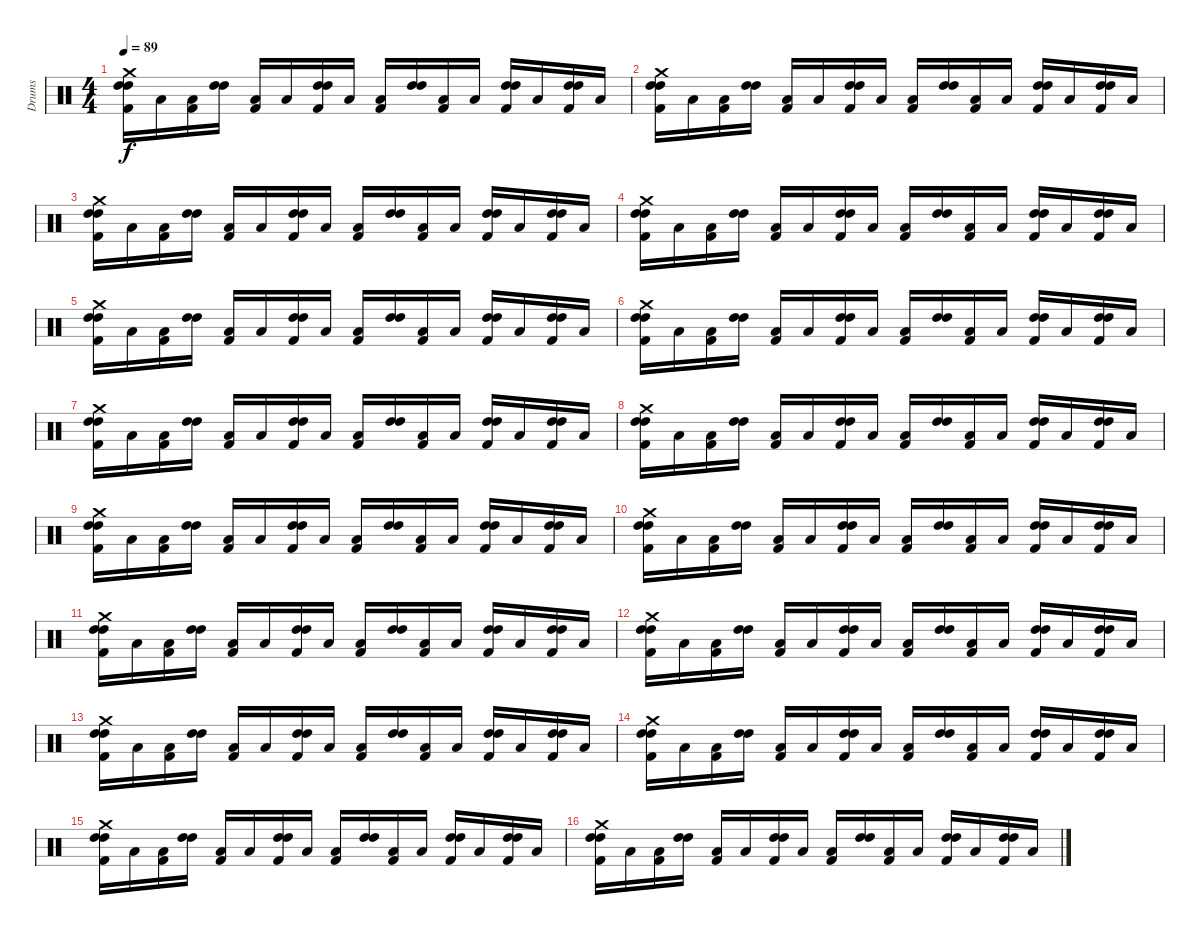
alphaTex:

\track ("Drums" "Drums") {instrument percussion}
\staff {score}
\articulation defaults
\ts (4 4)
\tempo 89
\clef neutral
\ks c
("High Tom (hit)" "Kick (hit) 2" "Crash medium (hit)" "High Tom (hit)").16{dy f} "Low Tom (hit)".16 ("Low Tom (hit)" "Kick (hit) 2").16 ("High Tom (hit)" "High Tom (hit)").16 ("Low Tom (hit)" "Kick (hit) 2").16 "Low Tom (hit)".16 ("High Tom (hit)" "Kick (hit) 2" "High Tom (hit)").16 "Low Tom (hit)".16 ("Low Tom (hit)" "Kick (hit) 2").16 ("High Tom (hit)" "High Tom (hit)").16 ("Low Tom (hit)" "Kick (hit) 2").16 "Low Tom (hit)".16 ("High Tom (hit)" "Kick (hit) 2" "High Tom (hit)").16 "Low Tom (hit)".16 ("High Tom (hit)" "Kick (hit) 2" "High Tom (hit)").16 "Low Tom (hit)".16 |
("High Tom (hit)" "Kick (hit) 2" "Crash medium (hit)" "High Tom (hit)").16 "Low Tom (hit)".16 ("Low Tom (hit)" "Kick (hit) 2").16 ("High Tom (hit)" "High Tom (hit)").16 ("Low Tom (hit)" "Kick (hit) 2").16 "Low Tom (hit)".16 ("High Tom (hit)" "Kick (hit) 2" "High Tom (hit)").16 "Low Tom (hit)".16 ("Low Tom (hit)" "Kick (hit) 2").16 ("High Tom (hit)" "High Tom (hit)").16 ("Low Tom (hit)" "Kick (hit) 2").16 "Low Tom (hit)".16 ("High Tom (hit)" "Kick (hit) 2" "High Tom (hit)").16 "Low Tom (hit)".16 ("High Tom (hit)" "Kick (hit) 2" "High Tom (hit)").16 "Low Tom (hit)".16 |
("High Tom (hit)" "Kick (hit) 2" "Crash medium (hit)" "High Tom (hit)").16 "Low Tom (hit)".16 ("Low Tom (hit)" "Kick (hit) 2").16 ("High Tom (hit)" "High Tom (hit)").16 ("Low Tom (hit)" "Kick (hit) 2").16 "Low Tom (hit)".16 ("High Tom (hit)" "Kick (hit) 2" "High Tom (hit)").16 "Low Tom (hit)".16 ("Low Tom (hit)" "Kick (hit) 2").16 ("High Tom (hit)" "High Tom (hit)").16 ("Low Tom (hit)" "Kick (hit) 2").16 "Low Tom (hit)".16 ("High Tom (hit)" "Kick (hit) 2" "High Tom (hit)").16 "Low Tom (hit)".16 ("High Tom (hit)" "Kick (hit) 2" "High Tom (hit)").16 "Low Tom (hit)".16 |
("High Tom (hit)" "Kick (hit) 2" "Crash medium (hit)" "High Tom (hit)").16 "Low Tom (hit)".16 ("Low Tom (hit)" "Kick (hit) 2").16 ("High Tom (hit)" "High Tom (hit)").16 ("Low Tom (hit)" "Kick (hit) 2").16 "Low Tom (hit)".16 ("High Tom (hit)" "Kick (hit) 2" "High Tom (hit)").16 "Low Tom (hit)".16 ("Low Tom (hit)" "Kick (hit) 2").16 ("High Tom (hit)" "High Tom (hit)").16 ("Low Tom (hit)" "Kick (hit) 2").16 "Low Tom (hit)".16 ("High Tom (hit)" "Kick (hit) 2" "High Tom (hit)").16 "Low Tom (hit)".16 ("High Tom (hit)" "Kick (hit) 2" "High Tom (hit)").16 "Low Tom (hit)".16 |
("High Tom (hit)" "Kick (hit) 2" "Crash medium (hit)" "High Tom (hit)").16 "Low Tom (hit)".16 ("Low Tom (hit)" "Kick (hit) 2").16 ("High Tom (hit)" "High Tom (hit)").16 ("Low Tom (hit)" "Kick (hit) 2").16 "Low Tom (hit)".16 ("High Tom (hit)" "Kick (hit) 2" "High Tom (hit)").16 "Low Tom (hit)".16 ("Low Tom (hit)" "Kick (hit) 2").16 ("High Tom (hit)" "High Tom (hit)").16 ("Low Tom (hit)" "Kick (hit) 2").16 "Low Tom (hit)".16 ("High Tom (hit)" "Kick (hit) 2" "High Tom (hit)").16 "Low Tom (hit)".16 ("High Tom (hit)" "Kick (hit) 2" "High Tom (hit)").16 "Low Tom (hit)".16 |
("High Tom (hit)" "Kick (hit) 2" "Crash medium (hit)" "High Tom (hit)").16 "Low Tom (hit)".16 ("Low Tom (hit)" "Kick (hit) 2").16 ("High Tom (hit)" "High Tom (hit)").16 ("Low Tom (hit)" "Kick (hit) 2").16 "Low Tom (hit)".16 ("High Tom (hit)" "Kick (hit) 2" "High Tom (hit)").16 "Low Tom (hit)".16 ("Low Tom (hit)" "Kick (hit) 2").16 ("High Tom (hit)" "High Tom (hit)").16 ("Low Tom (hit)" "Kick (hit) 2").16 "Low Tom (hit)".16 ("High Tom (hit)" "Kick (hit) 2" "High Tom (hit)").16 "Low Tom (hit)".16 ("High Tom (hit)" "Kick (hit) 2" "High Tom (hit)").16 "Low Tom (hit)".16 |
("High Tom (hit)" "Kick (hit) 2" "Crash medium (hit)" "High Tom (hit)").16 "Low Tom (hit)".16 ("Low Tom (hit)" "Kick (hit) 2").16 ("High Tom (hit)" "High Tom (hit)").16 ("Low Tom (hit)" "Kick (hit) 2").16 "Low Tom (hit)".16 ("High Tom (hit)" "Kick (hit) 2" "High Tom (hit)").16 "Low Tom (hit)".16 ("Low Tom (hit)" "Kick (hit) 2").16 ("High Tom (hit)" "High Tom (hit)").16 ("Low Tom (hit)" "Kick (hit) 2").16 "Low Tom (hit)".16 ("High Tom (hit)" "Kick (hit) 2" "High Tom (hit)").16 "Low Tom (hit)".16 ("High Tom (hit)" "Kick (hit) 2" "High Tom (hit)").16 "Low Tom (hit)".16 |
("High Tom (hit)" "Kick (hit) 2" "Crash medium (hit)" "High Tom (hit)").16 "Low Tom (hit)".16 ("Low Tom (hit)" "Kick (hit) 2").16 ("High Tom (hit)" "High Tom (hit)").16 ("Low Tom (hit)" "Kick (hit) 2").16 "Low Tom (hit)".16 ("High Tom (hit)" "Kick (hit) 2" "High Tom (hit)").16 "Low Tom (hit)".16 ("Low Tom (hit)" "Kick (hit) 2").16 ("High Tom (hit)" "High Tom (hit)").16 ("Low Tom (hit)" "Kick (hit) 2").16 "Low Tom (hit)".16 ("High Tom (hit)" "Kick (hit) 2" "High Tom (hit)").16 "Low Tom (hit)".16 ("High Tom (hit)" "Kick (hit) 2" "High Tom (hit)").16 "Low Tom (hit)".16 |
("High Tom (hit)" "Kick (hit) 2" "Crash medium (hit)" "High Tom (hit)").16 "Low Tom (hit)".16 ("Low Tom (hit)" "Kick (hit) 2").16 ("High Tom (hit)" "High Tom (hit)").16 ("Low Tom (hit)" "Kick (hit) 2").16 "Low Tom (hit)".16 ("High Tom (hit)" "Kick (hit) 2" "High Tom (hit)").16 "Low Tom (hit)".16 ("Low Tom (hit)" "Kick (hit) 2").16 ("High Tom (hit)" "High Tom (hit)").16 ("Low Tom (hit)" "Kick (hit) 2").16 "Low Tom (hit)".16 ("High Tom (hit)" "Kick (hit) 2" "High Tom (hit)").16 "Low Tom (hit)".16 ("High Tom (hit)" "Kick (hit) 2" "High Tom (hit)").16 "Low Tom (hit)".16 |
("High Tom (hit)" "Kick (hit) 2" "Crash medium (hit)" "High Tom (hit)").16 "Low Tom (hit)".16 ("Low Tom (hit)" "Kick (hit) 2").16 ("High Tom (hit)" "High Tom (hit)").16 ("Low Tom (hit)" "Kick (hit) 2").16 "Low Tom (hit)".16 ("High Tom (hit)" "Kick (hit) 2" "High Tom (hit)").16 "Low Tom (hit)".16 ("Low Tom (hit)" "Kick (hit) 2").16 ("High Tom (hit)" "High Tom (hit)").16 ("Low Tom (hit)" "Kick (hit) 2").16 "Low Tom (hit)".16 ("High Tom (hit)" "Kick (hit) 2" "High Tom (hit)").16 "Low Tom (hit)".16 ("High Tom (hit)" "Kick (hit) 2" "High Tom (hit)").16 "Low Tom (hit)".16 |
("High Tom (hit)" "Kick (hit) 2" "Crash medium (hit)" "High Tom (hit)").16 "Low Tom (hit)".16 ("Low Tom (hit)" "Kick (hit) 2").16 ("High Tom (hit)" "High Tom (hit)").16 ("Low Tom (hit)" "Kick (hit) 2").16 "Low Tom (hit)".16 ("High Tom (hit)" "Kick (hit) 2" "High Tom (hit)").16 "Low Tom (hit)".16 ("Low Tom (hit)" "Kick (hit) 2").16 ("High Tom (hit)" "High Tom (hit)").16 ("Low Tom (hit)" "Kick (hit) 2").16 "Low Tom (hit)".16 ("High Tom (hit)" "Kick (hit) 2" "High Tom (hit)").16 "Low Tom (hit)".16 ("High Tom (hit)" "Kick (hit) 2" "High Tom (hit)").16 "Low Tom (hit)".16 |
("High Tom (hit)" "Kick (hit) 2" "Crash medium (hit)" "High Tom (hit)").16 "Low Tom (hit)".16 ("Low Tom (hit)" "Kick (hit) 2").16 ("High Tom (hit)" "High Tom (hit)").16 ("Low Tom (hit)" "Kick (hit) 2").16 "Low Tom (hit)".16 ("High Tom (hit)" "Kick (hit) 2" "High Tom (hit)").16 "Low Tom (hit)".16 ("Low Tom (hit)" "Kick (hit) 2").16 ("High Tom (hit)" "High Tom (hit)").16 ("Low Tom (hit)" "Kick (hit) 2").16 "Low Tom (hit)".16 ("High Tom (hit)" "Kick (hit) 2" "High Tom (hit)").16 "Low Tom (hit)".16 ("High Tom (hit)" "Kick (hit) 2" "High Tom (hit)").16 "Low Tom (hit)".16 |
("High Tom (hit)" "Kick (hit) 2" "Crash medium (hit)" "High Tom (hit)").16 "Low Tom (hit)".16 ("Low Tom (hit)" "Kick (hit) 2").16 ("High Tom (hit)" "High Tom (hit)").16 ("Low Tom (hit)" "Kick (hit) 2").16 "Low Tom (hit)".16 ("High Tom (hit)" "Kick (hit) 2" "High Tom (hit)").16 "Low Tom (hit)".16 ("Low Tom (hit)" "Kick (hit) 2").16 ("High Tom (hit)" "High Tom (hit)").16 ("Low Tom (hit)" "Kick (hit) 2").16 "Low Tom (hit)".16 ("High Tom (hit)" "Kick (hit) 2" "High Tom (hit)").16 "Low Tom (hit)".16 ("High Tom (hit)" "Kick (hit) 2" "High Tom (hit)").16 "Low Tom (hit)".16 |
("High Tom (hit)" "Kick (hit) 2" "Crash medium (hit)" "High Tom (hit)").16 "Low Tom (hit)".16 ("Low Tom (hit)" "Kick (hit) 2").16 ("High Tom (hit)" "High Tom (hit)").16 ("Low Tom (hit)" "Kick (hit) 2").16 "Low Tom (hit)".16 ("High Tom (hit)" "Kick (hit) 2" "High Tom (hit)").16 "Low Tom (hit)".16 ("Low Tom (hit)" "Kick (hit) 2").16 ("High Tom (hit)" "High Tom (hit)").16 ("Low Tom (hit)" "Kick (hit) 2").16 "Low Tom (hit)".16 ("High Tom (hit)" "Kick (hit) 2" "High Tom (hit)").16 "Low Tom (hit)".16 ("High Tom (hit)" "Kick (hit) 2" "High Tom (hit)").16 "Low Tom (hit)".16 |
("High Tom (hit)" "Kick (hit) 2" "Crash medium (hit)" "High Tom (hit)").16 "Low Tom (hit)".16 ("Low Tom (hit)" "Kick (hit) 2").16 ("High Tom (hit)" "High Tom (hit)").16 ("Low Tom (hit)" "Kick (hit) 2").16 "Low Tom (hit)".16 ("High Tom (hit)" "Kick (hit) 2" "High Tom (hit)").16 "Low Tom (hit)".16 ("Low Tom (hit)" "Kick (hit) 2").16 ("High Tom (hit)" "High Tom (hit)").16 ("Low Tom (hit)" "Kick (hit) 2").16 "Low Tom (hit)".16 ("High Tom (hit)" "Kick (hit) 2" "High Tom (hit)").16 "Low Tom (hit)".16 ("High Tom (hit)" "Kick (hit) 2" "High Tom (hit)").16 "Low Tom (hit)".16 |
("High Tom (hit)" "Kick (hit) 2" "Crash medium (hit)" "High Tom (hit)").16 "Low Tom (hit)".16 ("Low Tom (hit)" "Kick (hit) 2").16 ("High Tom (hit)" "High Tom (hit)").16 ("Low Tom (hit)" "Kick (hit) 2").16 "Low Tom (hit)".16 ("High Tom (hit)" "Kick (hit) 2" "High Tom (hit)").16 "Low Tom (hit)".16 ("Low Tom (hit)" "Kick (hit) 2").16 ("High Tom (hit)" "High Tom (hit)").16 ("Low Tom (hit)" "Kick (hit) 2").16 "Low Tom (hit)".16 ("High Tom (hit)" "Kick (hit) 2" "High Tom (hit)").16 "Low Tom (hit)".16 ("High Tom (hit)" "Kick (hit) 2" "High Tom (hit)").16 "Low Tom (hit)".16
